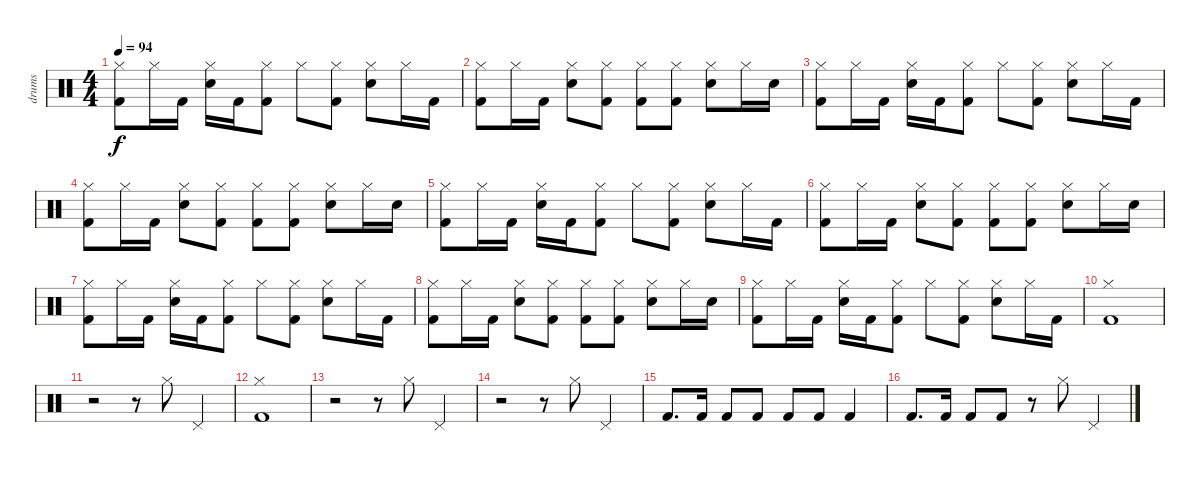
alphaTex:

\track ("drums" "drums") {instrument percussion}
\staff {score}
\articulation defaults
\ts (4 4)
\tempo 94
\clef neutral
\ks c
("Hi-Hat (closed)" "Kick (hit) 2").8{dy f} "Hi-Hat (closed)".16 "Kick (hit) 2".16 ("Hi-Hat (closed)" "Snare (hit) 2").16 "Kick (hit) 2".16 ("Hi-Hat (closed)" "Kick (hit) 2").8 "Hi-Hat (closed)".8 ("Hi-Hat (closed)" "Kick (hit) 2").8 ("Hi-Hat (closed)" "Snare (hit) 2").8 "Hi-Hat (closed)".16 "Kick (hit) 2".16 |
("Kick (hit) 2" "Hi-Hat (closed)").8 "Hi-Hat (closed)".16 "Kick (hit) 2".16 ("Hi-Hat (closed)" "Snare (hit) 2").8 ("Kick (hit) 2" "Hi-Hat (closed)").8 ("Kick (hit) 2" "Hi-Hat (closed)").8 ("Hi-Hat (closed)" "Kick (hit) 2").8 ("Hi-Hat (closed)" "Snare (hit) 2").8 "Hi-Hat (closed)".16 "Snare (hit) 2".16 |
("Hi-Hat (closed)" "Kick (hit) 2").8 "Hi-Hat (closed)".16 "Kick (hit) 2".16 ("Hi-Hat (closed)" "Snare (hit) 2").16 "Kick (hit) 2".16 ("Hi-Hat (closed)" "Kick (hit) 2").8 "Hi-Hat (closed)".8 ("Hi-Hat (closed)" "Kick (hit) 2").8 ("Hi-Hat (closed)" "Snare (hit) 2").8 "Hi-Hat (closed)".16 "Kick (hit) 2".16 |
("Kick (hit) 2" "Hi-Hat (closed)").8 "Hi-Hat (closed)".16 "Kick (hit) 2".16 ("Hi-Hat (closed)" "Snare (hit) 2").8 ("Kick (hit) 2" "Hi-Hat (closed)").8 ("Kick (hit) 2" "Hi-Hat (closed)").8 ("Hi-Hat (closed)" "Kick (hit) 2").8 ("Hi-Hat (closed)" "Snare (hit) 2").8 "Hi-Hat (closed)".16 "Snare (hit) 2".16 |
("Hi-Hat (closed)" "Kick (hit) 2").8 "Hi-Hat (closed)".16 "Kick (hit) 2".16 ("Hi-Hat (closed)" "Snare (hit) 2").16 "Kick (hit) 2".16 ("Hi-Hat (closed)" "Kick (hit) 2").8 "Hi-Hat (closed)".8 ("Hi-Hat (closed)" "Kick (hit) 2").8 ("Hi-Hat (closed)" "Snare (hit) 2").8 "Hi-Hat (closed)".16 "Kick (hit) 2".16 |
("Kick (hit) 2" "Hi-Hat (closed)").8 "Hi-Hat (closed)".16 "Kick (hit) 2".16 ("Hi-Hat (closed)" "Snare (hit) 2").8 ("Kick (hit) 2" "Hi-Hat (closed)").8 ("Kick (hit) 2" "Hi-Hat (closed)").8 ("Hi-Hat (closed)" "Kick (hit) 2").8 ("Hi-Hat (closed)" "Snare (hit) 2").8 "Hi-Hat (closed)".16 "Snare (hit) 2".16 |
("Hi-Hat (closed)" "Kick (hit) 2").8 "Hi-Hat (closed)".16 "Kick (hit) 2".16 ("Hi-Hat (closed)" "Snare (hit) 2").16 "Kick (hit) 2".16 ("Hi-Hat (closed)" "Kick (hit) 2").8 "Hi-Hat (closed)".8 ("Hi-Hat (closed)" "Kick (hit) 2").8 ("Hi-Hat (closed)" "Snare (hit) 2").8 "Hi-Hat (closed)".16 "Kick (hit) 2".16 |
("Kick (hit) 2" "Hi-Hat (closed)").8 "Hi-Hat (closed)".16 "Kick (hit) 2".16 ("Hi-Hat (closed)" "Snare (hit) 2").8 ("Kick (hit) 2" "Hi-Hat (closed)").8 ("Kick (hit) 2" "Hi-Hat (closed)").8 ("Hi-Hat (closed)" "Kick (hit) 2").8 ("Hi-Hat (closed)" "Snare (hit) 2").8 "Hi-Hat (closed)".16 "Snare (hit) 2".16 |
("Hi-Hat (closed)" "Kick (hit) 2").8 "Hi-Hat (closed)".16 "Kick (hit) 2".16 ("Hi-Hat (closed)" "Snare (hit) 2").16 "Kick (hit) 2".16 ("Hi-Hat (closed)" "Kick (hit) 2").8 "Hi-Hat (closed)".8 ("Hi-Hat (closed)" "Kick (hit) 2").8 ("Hi-Hat (closed)" "Snare (hit) 2").8 "Hi-Hat (closed)".16 "Kick (hit) 2".16 |
("Hi-Hat (closed)" "Kick (hit) 2").1 |
r.2 r.8 "Hi-Hat (closed)".8 "Pedal Hi-Hat (hit)".4 |
("Hi-Hat (closed)" "Kick (hit) 2").1 |
r.2 r.8 "Hi-Hat (closed)".8 "Pedal Hi-Hat (hit)".4 |
r.2 r.8 "Hi-Hat (closed)".8 "Pedal Hi-Hat (hit)".4 |
"Kick (hit) 2".8{d} "Kick (hit) 2".16 "Kick (hit) 2".8 "Kick (hit) 2".8 "Kick (hit) 2".8 "Kick (hit) 2".8 "Kick (hit) 2".4 |
"Kick (hit) 2".8{d} "Kick (hit) 2".16 "Kick (hit) 2".8 "Kick (hit) 2".8 r.8 "Hi-Hat (closed)".8 "Pedal Hi-Hat (hit)".4
